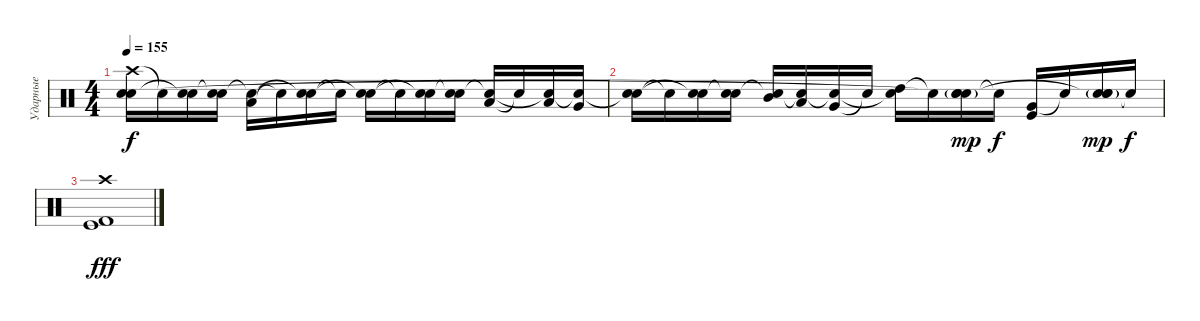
\track ("Ударные" "Ударные") {instrument percussion}
\staff {score}
\articulation defaults
\ts (4 4)
\tempo 155
\clef neutral
\ks c
("Crash high (hit)" "Electric Snare (hit)" "Snare (hit)"{t}).16{dy f} "Snare (hit)"{t}.16 ("Electric Snare (hit)" "Snare (hit)"{t}).16 ("Electric Snare (hit)" "Snare (hit)"{t}).16 ("Low Tom (hit)" "Snare (hit)"{t}).16 "Snare (hit)"{t}.16 ("Electric Snare (hit)" "Snare (hit)"{t}).16 "Snare (hit)"{t}.16 ("Electric Snare (hit)" "Snare (hit)"{t}).16 "Snare (hit)"{t}.16 ("Electric Snare (hit)" "Snare (hit)"{t}).16 ("Electric Snare (hit)" "Snare (hit)"{t}).16 ("Low Tom (hit)" "Snare (hit)"{t}).16 "Snare (hit)"{t}.16 ("Low Tom (hit)" "Snare (hit)"{t}).16 ("Very Low Tom (hit)" "Snare (hit)"{t}).16 |
("Electric Snare (hit)" "Snare (hit)"{t}).16 "Snare (hit)"{t}.16 ("Electric Snare (hit)" "Snare (hit)"{t}).16 ("Electric Snare (hit)" "Snare (hit)"{t}).16 ("Mid Tom (hit)" "Snare (hit)"{t}).16 ("Low Tom (hit)" "Snare (hit)"{t}).16 ("Very Low Tom (hit)" "Snare (hit)"{t}).16 "Snare (hit)"{t}.16 ("High Tom (hit)" "Snare (hit)"{t}).16 "Snare (hit)"{t}.16 ("Electric Snare (hit)"{g} "Electric Snare (hit)" "Snare (hit)"{t}).16{bd 480 dy mp} "Snare (hit)"{t}.16{dy f} ("Very Low Tom (hit)" "Kick (hit)").16 "Snare (hit)"{t}.16 ("Electric Snare (hit)"{g} "Electric Snare (hit)" "Snare (hit)"{t}).16{bd 480 dy mp} "Snare (hit)"{t}.16{dy f} |
("Crash high (hit)" "Kick (hit) 2" "Kick (hit)").1{dy fff}
